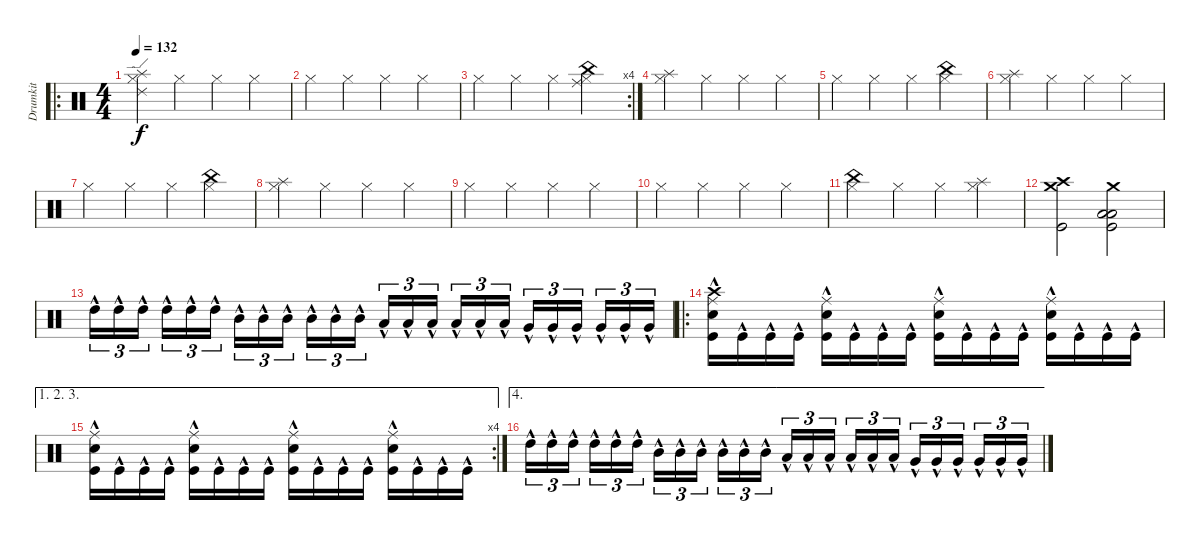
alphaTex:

\track ("Drumkit" "Drumkit") {instrument percussion}
\staff {score}
\articulation defaults
\ro
\ts (4 4)
\tempo 132
\clef neutral
\ks c
("Splash (hit)" "Ride (edge) 2" "Hi-Hat (closed)").4{dy f} "Hi-Hat (closed)".4 "Hi-Hat (closed)".4 "Hi-Hat (closed)".4 |
"Hi-Hat (closed)".4 "Hi-Hat (closed)".4 "Hi-Hat (closed)".4 "Hi-Hat (closed)".4 |
\rc 4 "Hi-Hat (closed)".4 "Hi-Hat (closed)".4 "Hi-Hat (closed)".4
("Ride (middle)" "China (hit)" "Hi-Hat (closed)").4 |
("Splash (hit)" "Hi-Hat (closed)").4 "Hi-Hat (closed)".4 "Hi-Hat (closed)".4 "Hi-Hat (closed)".4 |
"Hi-Hat (closed)".4 "Hi-Hat (closed)".4 "Hi-Hat (closed)".4 ("China (hit)" "Hi-Hat (closed)").4 |
("Hi-Hat (closed)" "Splash (hit)").4 "Hi-Hat (closed)".4 "Hi-Hat (closed)".4 "Hi-Hat (closed)".4 |
"Hi-Hat (closed)".4 "Hi-Hat (closed)".4 "Hi-Hat (closed)".4 ("China (hit)" "Hi-Hat (closed)").4 |
("Splash (hit)" "Hi-Hat (closed)").4 "Hi-Hat (closed)".4 "Hi-Hat (closed)".4 "Hi-Hat (closed)".4 |
"Hi-Hat (closed)".4 "Hi-Hat (closed)".4 "Hi-Hat (closed)".4 "Hi-Hat (closed)".4 |
"Hi-Hat (closed)".4 "Hi-Hat (closed)".4 "Hi-Hat (closed)".4 "Hi-Hat (closed)".4 |
("Hi-Hat (closed)" "China (hit)").4 "Hi-Hat (closed)".4 "Hi-Hat (closed)".4 ("Hi-Hat (closed)" "Splash (hit)").4 |
("Crash high (hit)" "Crash medium (hit)" "Kick (hit)").2 ("Crash medium (hit)" "Low Tom (hit)" "Low Floor Tom (hit)" "Kick (hit)").2 |
"High Tom (hit)"{hac}.16{tu (3 2)} "High Tom (hit)"{hac}.16{tu (3 2)} "High Tom (hit)"{hac}.16{tu (3 2)} "High Tom (hit)"{hac}.16{tu (3 2)} "High Tom (hit)"{hac}.16{tu (3 2)} "High Tom (hit)"{hac}.16{tu (3 2)} "Mid Tom (hit)"{hac}.16{tu (3 2)} "Mid Tom (hit)"{hac}.16{tu (3 2)} "Mid Tom (hit)"{hac}.16{tu (3 2)} "Mid Tom (hit)"{hac}.16{tu (3 2)} "Mid Tom (hit)"{hac}.16{tu (3 2)} "Mid Tom (hit)"{hac}.16{tu (3 2)} "Low Tom (hit)"{hac}.16{tu (3 2)} "Low Tom (hit)"{hac}.16{tu (3 2)} "Low Tom (hit)"{hac}.16{tu (3 2)} "Low Tom (hit)"{hac}.16{tu (3 2)} "Low Tom (hit)"{hac}.16{tu (3 2)} "Low Tom (hit)"{hac}.16{tu (3 2)} "Very Low Tom (hit)"{hac}.16{tu (3 2)} "Very Low Tom (hit)"{hac}.16{tu (3 2)} "Very Low Tom (hit)"{hac}.16{tu (3 2)} "Very Low Tom (hit)"{hac}.16{tu (3 2)} "Very Low Tom (hit)"{hac}.16{tu (3 2)} "Very Low Tom (hit)"{hac}.16{tu (3 2)} |
\ro
("Crash high (hit)"{hac} "Snare (hit) 2"{hac} "Ride (middle)"{hac} "Kick (hit)"{hac}).16 "Kick (hit)"{hac}.16 "Kick (hit)"{hac}.16 "Kick (hit)"{hac}.16 ("Snare (hit) 2"{hac} "Ride (middle)"{hac} "Kick (hit)"{hac}).16 "Kick (hit)"{hac}.16 "Kick (hit)"{hac}.16 "Kick (hit)"{hac}.16 ("Snare (hit) 2"{hac} "Ride (middle)"{hac} "Kick (hit)"{hac}).16 "Kick (hit)"{hac}.16 "Kick (hit)"{hac}.16 "Kick (hit)"{hac}.16 ("Snare (hit) 2"{hac} "Ride (middle)"{hac} "Kick (hit)"{hac}).16 "Kick (hit)"{hac}.16 "Kick (hit)"{hac}.16 "Kick (hit)"{hac}.16 |
\ae (1 2 3)
\rc 4
("Snare (hit) 2"{hac} "Ride (middle)"{hac} "Kick (hit)"{hac}).16 "Kick (hit)"{hac}.16 "Kick (hit)"{hac}.16 "Kick (hit)"{hac}.16 ("Snare (hit) 2"{hac} "Ride (middle)"{hac} "Kick (hit)"{hac}).16 "Kick (hit)"{hac}.16 "Kick (hit)"{hac}.16 "Kick (hit)"{hac}.16 ("Snare (hit) 2"{hac} "Ride (middle)"{hac} "Kick (hit)"{hac}).16 "Kick (hit)"{hac}.16 "Kick (hit)"{hac}.16 "Kick (hit)"{hac}.16 ("Snare (hit) 2"{hac} "Ride (middle)"{hac} "Kick (hit)"{hac}).16 "Kick (hit)"{hac}.16 "Kick (hit)"{hac}.16 "Kick (hit)"{hac}.16 |
\ae 4 "High Tom (hit)"{hac}.16{tu (3 2)} "High Tom (hit)"{hac}.16{tu (3 2)} "High Tom (hit)"{hac}.16{tu (3 2)} "High Tom (hit)"{hac}.16{tu (3 2)} "High Tom (hit)"{hac}.16{tu (3 2)} "High Tom (hit)"{hac}.16{tu (3 2)} "Mid Tom (hit)"{hac}.16{tu (3 2)} "Mid Tom (hit)"{hac}.16{tu (3 2)} "Mid Tom (hit)"{hac}.16{tu (3 2)} "Mid Tom (hit)"{hac}.16{tu (3 2)} "Mid Tom (hit)"{hac}.16{tu (3 2)} "Mid Tom (hit)"{hac}.16{tu (3 2)} "Low Tom (hit)"{hac}.16{tu (3 2)} "Low Tom (hit)"{hac}.16{tu (3 2)} "Low Tom (hit)"{hac}.16{tu (3 2)} "Low Tom (hit)"{hac}.16{tu (3 2)} "Low Tom (hit)"{hac}.16{tu (3 2)} "Low Tom (hit)"{hac}.16{tu (3 2)} "Very Low Tom (hit)"{hac}.16{tu (3 2)} "Very Low Tom (hit)"{hac}.16{tu (3 2)} "Very Low Tom (hit)"{hac}.16{tu (3 2)} "Very Low Tom (hit)"{hac}.16{tu (3 2)} "Very Low Tom (hit)"{hac}.16{tu (3 2)} "Very Low Tom (hit)"{hac}.16{tu (3 2)}
